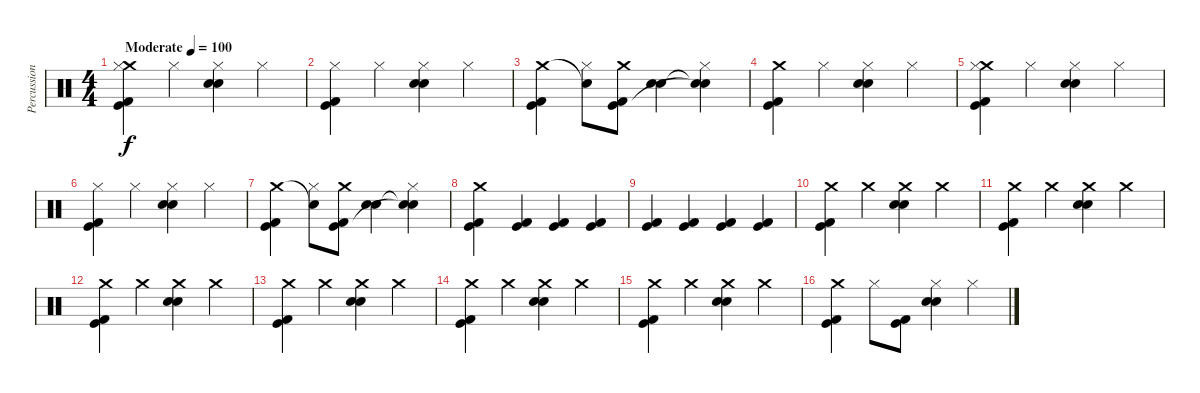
\track ("Percussion" "Percussion") {instrument percussion}
\staff {score}
\articulation defaults
\ts (4 4)
\tempo (100 "Moderate")
\clef neutral
\ks c
("Crash medium (hit)" "Hi-Hat (closed)" "Kick (hit) 2" "Kick (hit)").4{dy f} "Hi-Hat (closed)".4 ("Hi-Hat (closed)" "Electric Snare (hit)" "Snare (hit) 2").4 "Hi-Hat (closed)".4 |
("Hi-Hat (closed)" "Kick (hit) 2" "Kick (hit)").4 "Hi-Hat (closed)".4 ("Hi-Hat (closed)" "Electric Snare (hit)" "Snare (hit) 2").4 "Hi-Hat (closed)".4 |
("Crash medium (hit)" "Kick (hit) 2" "Kick (hit)").4 ("Snare (hit)"{t} "Hi-Hat (closed)").8 ("Crash medium (hit)" "Kick (hit) 2" "Kick (hit)").8 ("Electric Snare (hit)" "Snare (hit) 2").4 ("Hi-Hat (closed)" "Snare (hit)"{t} "Snare (hit)"{t}).4 |
("Crash medium (hit)" "Kick (hit) 2" "Kick (hit)").4 "Hi-Hat (closed)".4 ("Hi-Hat (closed)" "Electric Snare (hit)" "Snare (hit) 2").4 "Hi-Hat (closed)".4 |
("Crash medium (hit)" "Hi-Hat (closed)" "Kick (hit) 2" "Kick (hit)").4 "Hi-Hat (closed)".4 ("Hi-Hat (closed)" "Electric Snare (hit)" "Snare (hit) 2").4 "Hi-Hat (closed)".4 |
("Hi-Hat (closed)" "Kick (hit) 2" "Kick (hit)").4 "Hi-Hat (closed)".4 ("Hi-Hat (closed)" "Electric Snare (hit)" "Snare (hit) 2").4 "Hi-Hat (closed)".4 |
("Crash medium (hit)" "Kick (hit) 2" "Kick (hit)").4 ("Snare (hit)"{t} "Hi-Hat (closed)").8 ("Crash medium (hit)" "Kick (hit) 2" "Kick (hit)").8 ("Electric Snare (hit)" "Snare (hit) 2").4 ("Hi-Hat (closed)" "Snare (hit)"{t} "Snare (hit)"{t}).4 |
("Crash medium (hit)" "Kick (hit) 2" "Kick (hit)").4 ("Kick (hit) 2" "Kick (hit)").4 ("Kick (hit) 2" "Kick (hit)").4 ("Kick (hit) 2" "Kick (hit)").4 |
("Kick (hit) 2" "Kick (hit)").4 ("Kick (hit) 2" "Kick (hit)").4 ("Kick (hit) 2" "Kick (hit)").4 ("Kick (hit) 2" "Kick (hit)").4 |
("Crash medium (hit)" "Kick (hit) 2" "Kick (hit)").4 "Crash medium (hit)".4 ("Crash medium (hit)" "Electric Snare (hit)" "Snare (hit) 2").4 "Crash medium (hit)".4 |
("Crash medium (hit)" "Kick (hit) 2" "Kick (hit)").4 "Crash medium (hit)".4 ("Crash medium (hit)" "Electric Snare (hit)" "Snare (hit) 2").4 "Crash medium (hit)".4 |
("Crash medium (hit)" "Kick (hit) 2" "Kick (hit)").4 "Crash medium (hit)".4 ("Crash medium (hit)" "Electric Snare (hit)" "Snare (hit) 2").4 "Crash medium (hit)".4 |
("Crash medium (hit)" "Kick (hit) 2" "Kick (hit)").4 "Crash medium (hit)".4 ("Crash medium (hit)" "Electric Snare (hit)" "Snare (hit) 2").4 "Crash medium (hit)".4 |
("Crash medium (hit)" "Kick (hit) 2" "Kick (hit)").4 "Crash medium (hit)".4 ("Crash medium (hit)" "Electric Snare (hit)" "Snare (hit) 2").4 "Crash medium (hit)".4 |
("Crash medium (hit)" "Kick (hit) 2" "Kick (hit)").4 "Crash medium (hit)".4 ("Crash medium (hit)" "Electric Snare (hit)" "Snare (hit) 2").4 "Crash medium (hit)".4 |
("Crash medium (hit)" "Kick (hit) 2" "Kick (hit)").4 "Hi-Hat (closed)".8 ("Kick (hit) 2" "Kick (hit)").8 ("Hi-Hat (closed)" "Electric Snare (hit)" "Snare (hit) 2").4 "Hi-Hat (closed)".4
